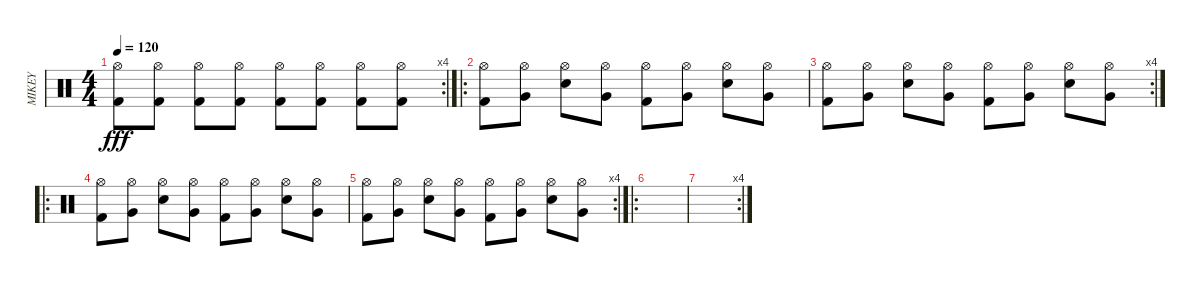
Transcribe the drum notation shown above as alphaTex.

\track ("MIKEY" "MIKEY") {instrument percussion}
\staff {score}
\articulation defaults
\rc 4
\ts (4 4)
\tempo 120
\clef neutral
\ks c
("Kick (hit) 2" "Hi-Hat (open)").8{dy fff} ("Kick (hit) 2" "Hi-Hat (open)").8 ("Kick (hit) 2" "Hi-Hat (open)").8 ("Kick (hit) 2" "Hi-Hat (open)").8 ("Kick (hit) 2" "Hi-Hat (open)").8 ("Kick (hit) 2" "Hi-Hat (open)").8 ("Kick (hit) 2" "Hi-Hat (open)").8 ("Kick (hit) 2" "Hi-Hat (open)").8 |
\ro
("Kick (hit) 2" "Hi-Hat (open)").8 ("Very Low Tom (hit)" "Hi-Hat (open)").8 ("Electric Snare (hit)" "Hi-Hat (open)").8 ("Very Low Tom (hit)" "Hi-Hat (open)").8 ("Kick (hit) 2" "Hi-Hat (open)").8 ("Very Low Tom (hit)" "Hi-Hat (open)").8 ("Electric Snare (hit)" "Hi-Hat (open)").8 ("Very Low Tom (hit)" "Hi-Hat (open)").8 |
\rc 4
("Kick (hit) 2" "Hi-Hat (open)").8 ("Very Low Tom (hit)" "Hi-Hat (open)").8 ("Electric Snare (hit)" "Hi-Hat (open)").8 ("Very Low Tom (hit)" "Hi-Hat (open)").8 ("Kick (hit) 2" "Hi-Hat (open)").8 ("Very Low Tom (hit)" "Hi-Hat (open)").8 ("Electric Snare (hit)" "Hi-Hat (open)").8 ("Very Low Tom (hit)" "Hi-Hat (open)").8 |
\ro
("Kick (hit) 2" "Hi-Hat (open)").8 ("Very Low Tom (hit)" "Hi-Hat (open)").8 ("Electric Snare (hit)" "Hi-Hat (open)").8 ("Very Low Tom (hit)" "Hi-Hat (open)").8 ("Kick (hit) 2" "Hi-Hat (open)").8 ("Very Low Tom (hit)" "Hi-Hat (open)").8 ("Electric Snare (hit)" "Hi-Hat (open)").8 ("Very Low Tom (hit)" "Hi-Hat (open)").8 |
\rc 4
("Kick (hit) 2" "Hi-Hat (open)").8 ("Very Low Tom (hit)" "Hi-Hat (open)").8 ("Electric Snare (hit)" "Hi-Hat (open)").8 ("Very Low Tom (hit)" "Hi-Hat (open)").8 ("Kick (hit) 2" "Hi-Hat (open)").8 ("Very Low Tom (hit)" "Hi-Hat (open)").8 ("Electric Snare (hit)" "Hi-Hat (open)").8 ("Very Low Tom (hit)" "Hi-Hat (open)").8 |
\ro
|
\rc 4
